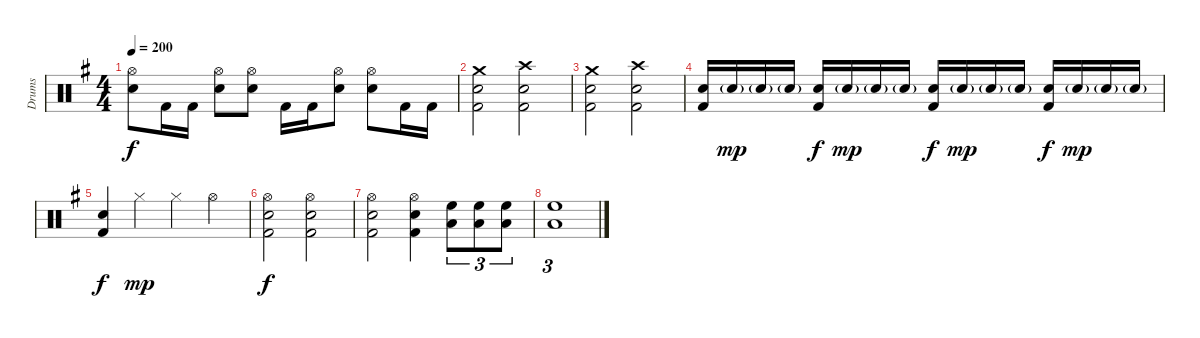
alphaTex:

\track ("Drums" "Drums") {instrument percussion}
\staff {score}
\articulation defaults
\ts (4 4)
\tempo 200
\clef neutral
\ks eminor
("Hi-Hat (open)" "Snare (hit) 2").8{dy f} "Kick (hit) 2".16 "Kick (hit) 2".16 ("Hi-Hat (open)" "Snare (hit) 2").8 ("Hi-Hat (open)" "Snare (hit) 2").8 "Kick (hit) 2".16 "Kick (hit) 2".16 ("Hi-Hat (open)" "Snare (hit) 2").8 ("Hi-Hat (open)" "Snare (hit) 2").8 "Kick (hit) 2".16 "Kick (hit) 2".16 |
("Snare (hit) 2" "Crash medium (hit)" "Kick (hit) 2").2 ("Snare (hit) 2" "Crash high (hit)" "Kick (hit) 2").2 |
("Snare (hit) 2" "Crash medium (hit)" "Kick (hit) 2").2 ("Snare (hit) 2" "Crash high (hit)" "Kick (hit) 2").2 |
("Snare (hit) 2" "Kick (hit) 2").16 "Snare (hit) 2"{g}.16{dy mp} "Snare (hit) 2"{g}.16 "Snare (hit) 2"{g}.16 ("Snare (hit) 2" "Kick (hit) 2").16{dy f} "Snare (hit) 2"{g}.16{dy mp} "Snare (hit) 2"{g}.16 "Snare (hit) 2"{g}.16 ("Snare (hit) 2" "Kick (hit) 2").16{dy f} "Snare (hit) 2"{g}.16{dy mp} "Snare (hit) 2"{g}.16 "Snare (hit) 2"{g}.16 ("Snare (hit) 2" "Kick (hit) 2").16{dy f} "Snare (hit) 2"{g}.16{dy mp} "Snare (hit) 2"{g}.16 "Snare (hit) 2"{g}.16 |
("Snare (hit) 2" "Kick (hit) 2").4{dy f} "Hi-Hat (closed)".4{dy mp} "Hi-Hat (closed)".4 "Hi-Hat (open)".4 |
("Hi-Hat (open)" "Snare (hit) 2" "Kick (hit) 2").2{dy f} ("Hi-Hat (open)" "Snare (hit) 2" "Kick (hit) 2").2 |
("Hi-Hat (open)" "Snare (hit) 2" "Kick (hit) 2").2 ("Hi-Hat (open)" "Snare (hit) 2" "Kick (hit) 2").4 ("High Floor Tom (hit)" "Low Tom (hit)").8{tu (3 2)} ("High Floor Tom (hit)" "Low Tom (hit)").8{tu (3 2)} ("High Floor Tom (hit)" "Low Tom (hit)").8{tu (3 2)} |
("High Floor Tom (hit)" "Low Tom (hit)").1{tu (3 2)}
